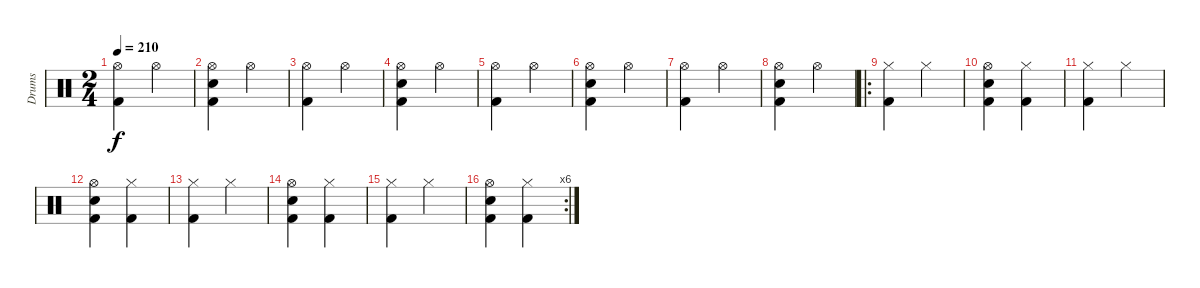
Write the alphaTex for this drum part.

\track ("Drums" "Drums") {instrument percussion}
\staff {score}
\articulation defaults
\ts (2 4)
\tempo 210
\clef neutral
\ks c
("Hi-Hat (open)" "Kick (hit) 2").4{dy f} "Hi-Hat (open)".4 |
("Hi-Hat (open)" "Electric Snare (hit)" "Kick (hit) 2").4 "Hi-Hat (open)".4 |
("Hi-Hat (open)" "Kick (hit) 2").4 "Hi-Hat (open)".4 |
("Hi-Hat (open)" "Electric Snare (hit)" "Kick (hit) 2").4 "Hi-Hat (open)".4 |
("Hi-Hat (open)" "Kick (hit) 2").4 "Hi-Hat (open)".4 |
("Hi-Hat (open)" "Electric Snare (hit)" "Kick (hit) 2").4 "Hi-Hat (open)".4 |
("Hi-Hat (open)" "Kick (hit) 2").4 "Hi-Hat (open)".4 |
("Hi-Hat (open)" "Electric Snare (hit)" "Kick (hit) 2").4 "Hi-Hat (open)".4 |
\ro
("Hi-Hat (closed)" "Kick (hit) 2").4 "Hi-Hat (closed)".4 |
("Hi-Hat (open)" "Electric Snare (hit)" "Kick (hit) 2").4 ("Hi-Hat (closed)" "Kick (hit) 2").4 |
("Hi-Hat (closed)" "Kick (hit) 2").4 "Hi-Hat (closed)".4 |
("Hi-Hat (open)" "Electric Snare (hit)" "Kick (hit) 2").4 ("Hi-Hat (closed)" "Kick (hit) 2").4 |
("Hi-Hat (closed)" "Kick (hit) 2").4 "Hi-Hat (closed)".4 |
("Hi-Hat (open)" "Electric Snare (hit)" "Kick (hit) 2").4 ("Hi-Hat (closed)" "Kick (hit) 2").4 |
("Hi-Hat (closed)" "Kick (hit) 2").4 "Hi-Hat (closed)".4 |
\rc 6
("Hi-Hat (open)" "Electric Snare (hit)" "Kick (hit) 2").4 ("Hi-Hat (closed)" "Kick (hit) 2").4
